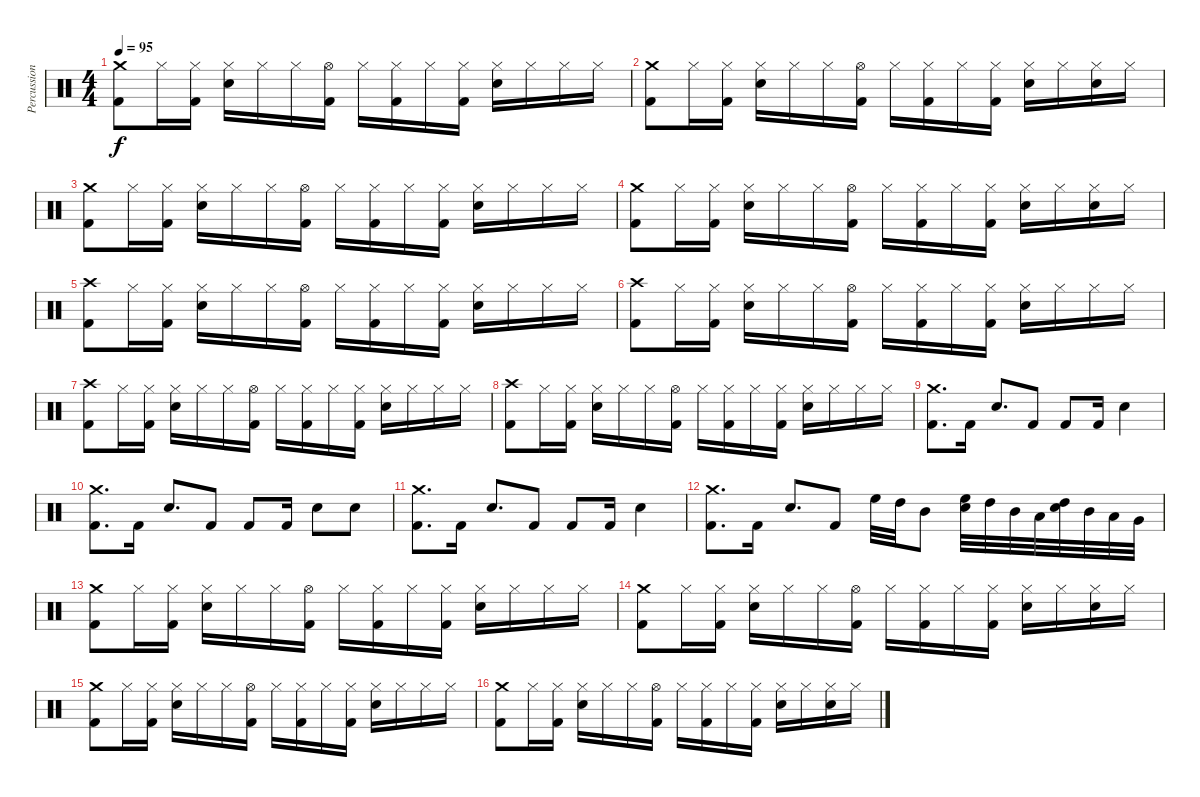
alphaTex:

\track ("Percussion" "Percussion") {instrument percussion}
\staff {score}
\articulation defaults
\ts (4 4)
\tempo 95
\clef neutral
\ks c
("Crash medium (hit)" "Kick (hit) 2").8{dy f} "Hi-Hat (closed)".16 ("Hi-Hat (closed)" "Kick (hit) 2").16 ("Hi-Hat (closed)" "Electric Snare (hit)").16 "Hi-Hat (closed)".16 "Hi-Hat (closed)".16 ("Hi-Hat (open)" "Kick (hit) 2").16 "Hi-Hat (closed)".16 ("Hi-Hat (closed)" "Kick (hit) 2").16 "Hi-Hat (closed)".16 ("Hi-Hat (closed)" "Kick (hit) 2").16 ("Hi-Hat (closed)" "Electric Snare (hit)").16 "Hi-Hat (closed)".16 "Hi-Hat (closed)".16 "Hi-Hat (closed)".16 |
("Crash medium (hit)" "Kick (hit) 2").8 "Hi-Hat (closed)".16 ("Hi-Hat (closed)" "Kick (hit) 2").16 ("Hi-Hat (closed)" "Electric Snare (hit)").16 "Hi-Hat (closed)".16 "Hi-Hat (closed)".16 ("Hi-Hat (open)" "Kick (hit) 2").16 "Hi-Hat (closed)".16 ("Hi-Hat (closed)" "Kick (hit) 2").16 "Hi-Hat (closed)".16 ("Hi-Hat (closed)" "Kick (hit) 2").16 ("Hi-Hat (closed)" "Electric Snare (hit)").16 "Hi-Hat (closed)".16 ("Hi-Hat (closed)" "Electric Snare (hit)").16 "Hi-Hat (closed)".16 |
("Crash medium (hit)" "Kick (hit) 2").8 "Hi-Hat (closed)".16 ("Hi-Hat (closed)" "Kick (hit) 2").16 ("Hi-Hat (closed)" "Electric Snare (hit)").16 "Hi-Hat (closed)".16 "Hi-Hat (closed)".16 ("Hi-Hat (open)" "Kick (hit) 2").16 "Hi-Hat (closed)".16 ("Hi-Hat (closed)" "Kick (hit) 2").16 "Hi-Hat (closed)".16 ("Hi-Hat (closed)" "Kick (hit) 2").16 ("Hi-Hat (closed)" "Electric Snare (hit)").16 "Hi-Hat (closed)".16 "Hi-Hat (closed)".16 "Hi-Hat (closed)".16 |
("Crash medium (hit)" "Kick (hit) 2").8 "Hi-Hat (closed)".16 ("Hi-Hat (closed)" "Kick (hit) 2").16 ("Hi-Hat (closed)" "Electric Snare (hit)").16 "Hi-Hat (closed)".16 "Hi-Hat (closed)".16 ("Hi-Hat (open)" "Kick (hit) 2").16 "Hi-Hat (closed)".16 ("Hi-Hat (closed)" "Kick (hit) 2").16 "Hi-Hat (closed)".16 ("Hi-Hat (closed)" "Kick (hit) 2").16 ("Hi-Hat (closed)" "Electric Snare (hit)").16 "Hi-Hat (closed)".16 ("Hi-Hat (closed)" "Electric Snare (hit)").16 "Hi-Hat (closed)".16 |
("Crash high (hit)" "Kick (hit) 2").8 "Hi-Hat (closed)".16 ("Hi-Hat (closed)" "Kick (hit) 2").16 ("Hi-Hat (closed)" "Electric Snare (hit)").16 "Hi-Hat (closed)".16 "Hi-Hat (closed)".16 ("Hi-Hat (open)" "Kick (hit) 2").16 "Hi-Hat (closed)".16 ("Hi-Hat (closed)" "Kick (hit) 2").16 "Hi-Hat (closed)".16 ("Hi-Hat (closed)" "Kick (hit) 2").16 ("Hi-Hat (closed)" "Electric Snare (hit)").16 "Hi-Hat (closed)".16 "Hi-Hat (closed)".16 "Hi-Hat (closed)".16 |
("Crash high (hit)" "Kick (hit) 2").8 "Hi-Hat (closed)".16 ("Hi-Hat (closed)" "Kick (hit) 2").16 ("Hi-Hat (closed)" "Electric Snare (hit)").16 "Hi-Hat (closed)".16 "Hi-Hat (closed)".16 ("Hi-Hat (open)" "Kick (hit) 2").16 "Hi-Hat (closed)".16 ("Hi-Hat (closed)" "Kick (hit) 2").16 "Hi-Hat (closed)".16 ("Hi-Hat (closed)" "Kick (hit) 2").16 ("Hi-Hat (closed)" "Electric Snare (hit)").16 "Hi-Hat (closed)".16 "Hi-Hat (closed)".16 "Hi-Hat (closed)".16 |
("Crash high (hit)" "Kick (hit) 2").8 "Hi-Hat (closed)".16 ("Hi-Hat (closed)" "Kick (hit) 2").16 ("Hi-Hat (closed)" "Electric Snare (hit)").16 "Hi-Hat (closed)".16 "Hi-Hat (closed)".16 ("Hi-Hat (open)" "Kick (hit) 2").16 "Hi-Hat (closed)".16 ("Hi-Hat (closed)" "Kick (hit) 2").16 "Hi-Hat (closed)".16 ("Hi-Hat (closed)" "Kick (hit) 2").16 ("Hi-Hat (closed)" "Electric Snare (hit)").16 "Hi-Hat (closed)".16 "Hi-Hat (closed)".16 "Hi-Hat (closed)".16 |
("Crash high (hit)" "Kick (hit) 2").8 "Hi-Hat (closed)".16 ("Hi-Hat (closed)" "Kick (hit) 2").16 ("Hi-Hat (closed)" "Electric Snare (hit)").16 "Hi-Hat (closed)".16 "Hi-Hat (closed)".16 ("Hi-Hat (open)" "Kick (hit) 2").16 "Hi-Hat (closed)".16 ("Hi-Hat (closed)" "Kick (hit) 2").16 "Hi-Hat (closed)".16 ("Hi-Hat (closed)" "Kick (hit) 2").16 ("Hi-Hat (closed)" "Electric Snare (hit)").16 "Hi-Hat (closed)".16 "Hi-Hat (closed)".16 "Hi-Hat (closed)".16 |
("Crash medium (hit)" "Kick (hit) 2").8{d} "Kick (hit) 2".16 "Electric Snare (hit)".8{d} "Kick (hit) 2".8 "Kick (hit) 2".8 "Kick (hit) 2".16 "Electric Snare (hit)".4 |
("Crash medium (hit)" "Kick (hit) 2").8{d} "Kick (hit) 2".16 "Electric Snare (hit)".8{d} "Kick (hit) 2".8 "Kick (hit) 2".8 "Kick (hit) 2".16 "Electric Snare (hit)".8 "Electric Snare (hit)".8 |
("Crash medium (hit)" "Kick (hit) 2").8{d} "Kick (hit) 2".16 "Electric Snare (hit)".8{d} "Kick (hit) 2".8 "Kick (hit) 2".8 "Kick (hit) 2".16 "Electric Snare (hit)".4 |
("Crash medium (hit)" "Kick (hit) 2").8{d} "Kick (hit) 2".16 "Electric Snare (hit)".8{d} "Kick (hit) 2".8 "High Floor Tom (hit)".32 "High Tom (hit)".32 "Mid Tom (hit)".8 ("Electric Snare (hit)" "High Floor Tom (hit)").32 "High Tom (hit)".32 "Mid Tom (hit)".32 "Low Tom (hit)".32 ("Electric Snare (hit)" "High Tom (hit)").32 "Mid Tom (hit)".32 "Low Tom (hit)".32 "Very Low Tom (hit)".32 |
("Crash medium (hit)" "Kick (hit) 2").8 "Hi-Hat (closed)".16 ("Hi-Hat (closed)" "Kick (hit) 2").16 ("Hi-Hat (closed)" "Electric Snare (hit)").16 "Hi-Hat (closed)".16 "Hi-Hat (closed)".16 ("Hi-Hat (open)" "Kick (hit) 2").16 "Hi-Hat (closed)".16 ("Hi-Hat (closed)" "Kick (hit) 2").16 "Hi-Hat (closed)".16 ("Hi-Hat (closed)" "Kick (hit) 2").16 ("Hi-Hat (closed)" "Electric Snare (hit)").16 "Hi-Hat (closed)".16 "Hi-Hat (closed)".16 "Hi-Hat (closed)".16 |
("Crash medium (hit)" "Kick (hit) 2").8 "Hi-Hat (closed)".16 ("Hi-Hat (closed)" "Kick (hit) 2").16 ("Hi-Hat (closed)" "Electric Snare (hit)").16 "Hi-Hat (closed)".16 "Hi-Hat (closed)".16 ("Hi-Hat (open)" "Kick (hit) 2").16 "Hi-Hat (closed)".16 ("Hi-Hat (closed)" "Kick (hit) 2").16 "Hi-Hat (closed)".16 ("Hi-Hat (closed)" "Kick (hit) 2").16 ("Hi-Hat (closed)" "Electric Snare (hit)").16 "Hi-Hat (closed)".16 ("Hi-Hat (closed)" "Electric Snare (hit)").16 "Hi-Hat (closed)".16 |
("Crash medium (hit)" "Kick (hit) 2").8 "Hi-Hat (closed)".16 ("Hi-Hat (closed)" "Kick (hit) 2").16 ("Hi-Hat (closed)" "Electric Snare (hit)").16 "Hi-Hat (closed)".16 "Hi-Hat (closed)".16 ("Hi-Hat (open)" "Kick (hit) 2").16 "Hi-Hat (closed)".16 ("Hi-Hat (closed)" "Kick (hit) 2").16 "Hi-Hat (closed)".16 ("Hi-Hat (closed)" "Kick (hit) 2").16 ("Hi-Hat (closed)" "Electric Snare (hit)").16 "Hi-Hat (closed)".16 "Hi-Hat (closed)".16 "Hi-Hat (closed)".16 |
("Crash medium (hit)" "Kick (hit) 2").8 "Hi-Hat (closed)".16 ("Hi-Hat (closed)" "Kick (hit) 2").16 ("Hi-Hat (closed)" "Electric Snare (hit)").16 "Hi-Hat (closed)".16 "Hi-Hat (closed)".16 ("Hi-Hat (open)" "Kick (hit) 2").16 "Hi-Hat (closed)".16 ("Hi-Hat (closed)" "Kick (hit) 2").16 "Hi-Hat (closed)".16 ("Hi-Hat (closed)" "Kick (hit) 2").16 ("Hi-Hat (closed)" "Electric Snare (hit)").16 "Hi-Hat (closed)".16 ("Hi-Hat (closed)" "Electric Snare (hit)").16 "Hi-Hat (closed)".16
